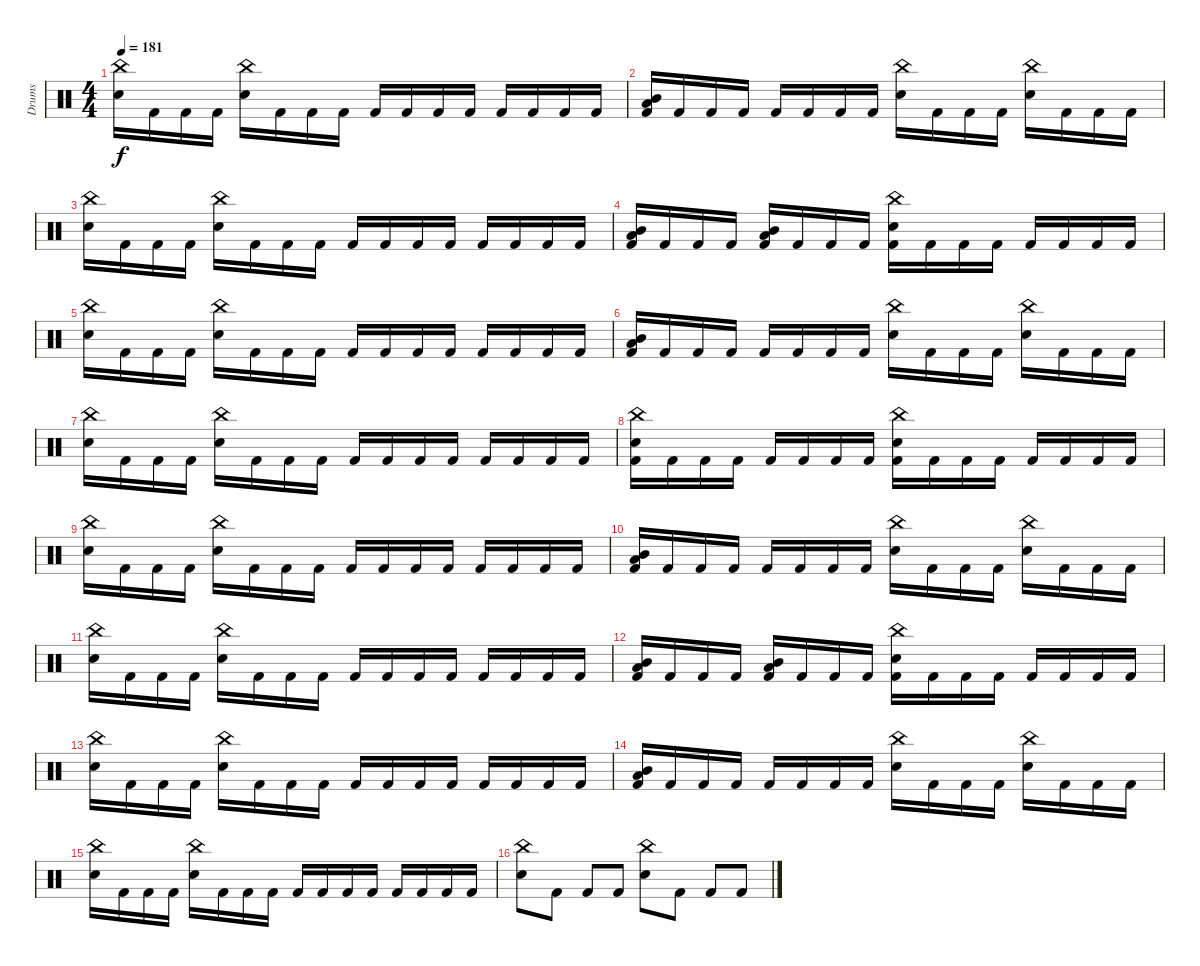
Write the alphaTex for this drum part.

\track ("Drums" "Drums") {instrument percussion}
\staff {score}
\articulation defaults
\ts (4 4)
\tempo 181
\clef neutral
\ks c
("China (hit)" "Snare (hit) 2").16{dy f} "Kick (hit) 2".16 "Kick (hit) 2".16 "Kick (hit) 2".16 ("China (hit)" "Snare (hit) 2").16 "Kick (hit) 2".16 "Kick (hit) 2".16 "Kick (hit) 2".16 "Kick (hit) 2".16 "Kick (hit) 2".16 "Kick (hit) 2".16 "Kick (hit) 2".16 "Kick (hit) 2".16 "Kick (hit) 2".16 "Kick (hit) 2".16 "Kick (hit) 2".16 |
("Mid Tom (hit)" "Low Tom (hit)" "Kick (hit) 2").16 "Kick (hit) 2".16 "Kick (hit) 2".16 "Kick (hit) 2".16 "Kick (hit) 2".16 "Kick (hit) 2".16 "Kick (hit) 2".16 "Kick (hit) 2".16 ("China (hit)" "Snare (hit) 2").16 "Kick (hit) 2".16 "Kick (hit) 2".16 "Kick (hit) 2".16 ("China (hit)" "Snare (hit) 2").16 "Kick (hit) 2".16 "Kick (hit) 2".16 "Kick (hit) 2".16 |
("China (hit)" "Snare (hit) 2").16 "Kick (hit) 2".16 "Kick (hit) 2".16 "Kick (hit) 2".16 ("China (hit)" "Snare (hit) 2").16 "Kick (hit) 2".16 "Kick (hit) 2".16 "Kick (hit) 2".16 "Kick (hit) 2".16 "Kick (hit) 2".16 "Kick (hit) 2".16 "Kick (hit) 2".16 "Kick (hit) 2".16 "Kick (hit) 2".16 "Kick (hit) 2".16 "Kick (hit) 2".16 |
("Mid Tom (hit)" "Low Tom (hit)" "Kick (hit) 2").16 "Kick (hit) 2".16 "Kick (hit) 2".16 "Kick (hit) 2".16 ("Mid Tom (hit)" "Low Tom (hit)" "Kick (hit) 2").16 "Kick (hit) 2".16 "Kick (hit) 2".16 "Kick (hit) 2".16 ("China (hit)" "Snare (hit) 2" "Kick (hit) 2").16 "Kick (hit) 2".16 "Kick (hit) 2".16 "Kick (hit) 2".16 "Kick (hit) 2".16 "Kick (hit) 2".16 "Kick (hit) 2".16 "Kick (hit) 2".16 |
("China (hit)" "Snare (hit) 2").16 "Kick (hit) 2".16 "Kick (hit) 2".16 "Kick (hit) 2".16 ("China (hit)" "Snare (hit) 2").16 "Kick (hit) 2".16 "Kick (hit) 2".16 "Kick (hit) 2".16 "Kick (hit) 2".16 "Kick (hit) 2".16 "Kick (hit) 2".16 "Kick (hit) 2".16 "Kick (hit) 2".16 "Kick (hit) 2".16 "Kick (hit) 2".16 "Kick (hit) 2".16 |
("Mid Tom (hit)" "Low Tom (hit)" "Kick (hit) 2").16 "Kick (hit) 2".16 "Kick (hit) 2".16 "Kick (hit) 2".16 "Kick (hit) 2".16 "Kick (hit) 2".16 "Kick (hit) 2".16 "Kick (hit) 2".16 ("China (hit)" "Snare (hit) 2").16 "Kick (hit) 2".16 "Kick (hit) 2".16 "Kick (hit) 2".16 ("China (hit)" "Snare (hit) 2").16 "Kick (hit) 2".16 "Kick (hit) 2".16 "Kick (hit) 2".16 |
("China (hit)" "Snare (hit) 2").16 "Kick (hit) 2".16 "Kick (hit) 2".16 "Kick (hit) 2".16 ("China (hit)" "Snare (hit) 2").16 "Kick (hit) 2".16 "Kick (hit) 2".16 "Kick (hit) 2".16 "Kick (hit) 2".16 "Kick (hit) 2".16 "Kick (hit) 2".16 "Kick (hit) 2".16 "Kick (hit) 2".16 "Kick (hit) 2".16 "Kick (hit) 2".16 "Kick (hit) 2".16 |
("China (hit)" "Snare (hit) 2" "Kick (hit) 2").16 "Kick (hit) 2".16 "Kick (hit) 2".16 "Kick (hit) 2".16 "Kick (hit) 2".16 "Kick (hit) 2".16 "Kick (hit) 2".16 "Kick (hit) 2".16 ("China (hit)" "Snare (hit) 2" "Kick (hit) 2").16 "Kick (hit) 2".16 "Kick (hit) 2".16 "Kick (hit) 2".16 "Kick (hit) 2".16 "Kick (hit) 2".16 "Kick (hit) 2".16 "Kick (hit) 2".16 |
("China (hit)" "Snare (hit) 2").16 "Kick (hit) 2".16 "Kick (hit) 2".16 "Kick (hit) 2".16 ("China (hit)" "Snare (hit) 2").16 "Kick (hit) 2".16 "Kick (hit) 2".16 "Kick (hit) 2".16 "Kick (hit) 2".16 "Kick (hit) 2".16 "Kick (hit) 2".16 "Kick (hit) 2".16 "Kick (hit) 2".16 "Kick (hit) 2".16 "Kick (hit) 2".16 "Kick (hit) 2".16 |
("Mid Tom (hit)" "Low Tom (hit)" "Kick (hit) 2").16 "Kick (hit) 2".16 "Kick (hit) 2".16 "Kick (hit) 2".16 "Kick (hit) 2".16 "Kick (hit) 2".16 "Kick (hit) 2".16 "Kick (hit) 2".16 ("China (hit)" "Snare (hit) 2").16 "Kick (hit) 2".16 "Kick (hit) 2".16 "Kick (hit) 2".16 ("China (hit)" "Snare (hit) 2").16 "Kick (hit) 2".16 "Kick (hit) 2".16 "Kick (hit) 2".16 |
("China (hit)" "Snare (hit) 2").16 "Kick (hit) 2".16 "Kick (hit) 2".16 "Kick (hit) 2".16 ("China (hit)" "Snare (hit) 2").16 "Kick (hit) 2".16 "Kick (hit) 2".16 "Kick (hit) 2".16 "Kick (hit) 2".16 "Kick (hit) 2".16 "Kick (hit) 2".16 "Kick (hit) 2".16 "Kick (hit) 2".16 "Kick (hit) 2".16 "Kick (hit) 2".16 "Kick (hit) 2".16 |
("Mid Tom (hit)" "Low Tom (hit)" "Kick (hit) 2").16 "Kick (hit) 2".16 "Kick (hit) 2".16 "Kick (hit) 2".16 ("Mid Tom (hit)" "Low Tom (hit)" "Kick (hit) 2").16 "Kick (hit) 2".16 "Kick (hit) 2".16 "Kick (hit) 2".16 ("China (hit)" "Snare (hit) 2" "Kick (hit) 2").16 "Kick (hit) 2".16 "Kick (hit) 2".16 "Kick (hit) 2".16 "Kick (hit) 2".16 "Kick (hit) 2".16 "Kick (hit) 2".16 "Kick (hit) 2".16 |
("China (hit)" "Snare (hit) 2").16 "Kick (hit) 2".16 "Kick (hit) 2".16 "Kick (hit) 2".16 ("China (hit)" "Snare (hit) 2").16 "Kick (hit) 2".16 "Kick (hit) 2".16 "Kick (hit) 2".16 "Kick (hit) 2".16 "Kick (hit) 2".16 "Kick (hit) 2".16 "Kick (hit) 2".16 "Kick (hit) 2".16 "Kick (hit) 2".16 "Kick (hit) 2".16 "Kick (hit) 2".16 |
("Mid Tom (hit)" "Low Tom (hit)" "Kick (hit) 2").16 "Kick (hit) 2".16 "Kick (hit) 2".16 "Kick (hit) 2".16 "Kick (hit) 2".16 "Kick (hit) 2".16 "Kick (hit) 2".16 "Kick (hit) 2".16 ("China (hit)" "Snare (hit) 2").16 "Kick (hit) 2".16 "Kick (hit) 2".16 "Kick (hit) 2".16 ("China (hit)" "Snare (hit) 2").16 "Kick (hit) 2".16 "Kick (hit) 2".16 "Kick (hit) 2".16 |
("China (hit)" "Snare (hit) 2").16 "Kick (hit) 2".16 "Kick (hit) 2".16 "Kick (hit) 2".16 ("China (hit)" "Snare (hit) 2").16 "Kick (hit) 2".16 "Kick (hit) 2".16 "Kick (hit) 2".16 "Kick (hit) 2".16 "Kick (hit) 2".16 "Kick (hit) 2".16 "Kick (hit) 2".16 "Kick (hit) 2".16 "Kick (hit) 2".16 "Kick (hit) 2".16 "Kick (hit) 2".16 |
("China (hit)" "Snare (hit) 2").8 "Kick (hit) 2".8 "Kick (hit) 2".8 "Kick (hit) 2".8 ("China (hit)" "Snare (hit) 2").8 "Kick (hit) 2".8 "Kick (hit) 2".8 "Kick (hit) 2".8
